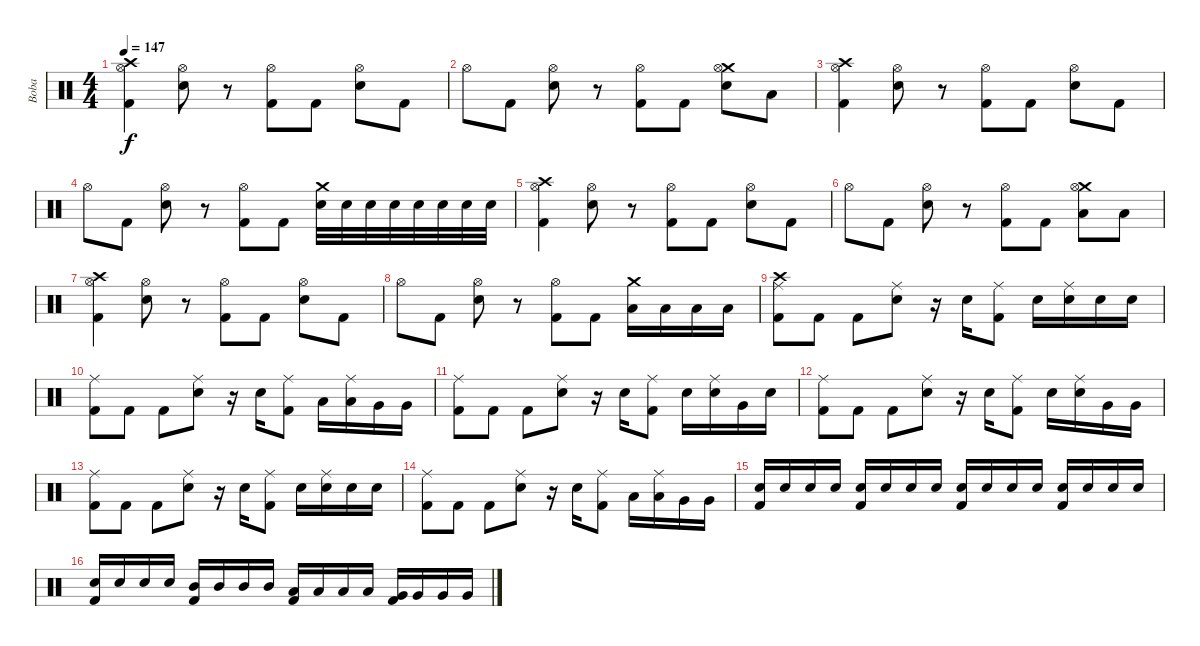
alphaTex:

\track ("Boba" "Boba") {instrument percussion}
\staff {score}
\articulation defaults
\ts (4 4)
\tempo 147
\clef neutral
\ks c
("Crash high (hit)" "Hi-Hat (open)" "Kick (hit) 2").4{dy f} ("Hi-Hat (open)" "Electric Snare (hit)").8 r.8 ("Hi-Hat (open)" "Kick (hit) 2").8 "Kick (hit) 2".8 ("Hi-Hat (open)" "Electric Snare (hit)").8 "Kick (hit) 2".8 |
"Hi-Hat (open)".8 "Kick (hit) 2".8 ("Hi-Hat (open)" "Electric Snare (hit)").8 r.8 ("Hi-Hat (open)" "Kick (hit) 2").8 "Kick (hit) 2".8 ("Crash medium (hit)" "Hi-Hat (open)" "Electric Snare (hit)").8 "Low Floor Tom (hit)".8 |
("Crash high (hit)" "Hi-Hat (open)" "Kick (hit) 2").4 ("Hi-Hat (open)" "Electric Snare (hit)").8 r.8 ("Hi-Hat (open)" "Kick (hit) 2").8 "Kick (hit) 2".8 ("Hi-Hat (open)" "Electric Snare (hit)").8 "Kick (hit) 2".8 |
"Hi-Hat (open)".8 "Kick (hit) 2".8 ("Hi-Hat (open)" "Electric Snare (hit)").8 r.8 ("Hi-Hat (open)" "Kick (hit) 2").8 "Kick (hit) 2".8 ("Crash medium (hit)" "Electric Snare (hit)").32 "Electric Snare (hit)".32 "Electric Snare (hit)".32 "Electric Snare (hit)".32 "Electric Snare (hit)".32 "Electric Snare (hit)".32 "Electric Snare (hit)".32 "Electric Snare (hit)".32 |
("Crash high (hit)" "Hi-Hat (open)" "Kick (hit) 2").4 ("Hi-Hat (open)" "Electric Snare (hit)").8 r.8 ("Hi-Hat (open)" "Kick (hit) 2").8 "Kick (hit) 2".8 ("Hi-Hat (open)" "Electric Snare (hit)").8 "Kick (hit) 2".8 |
"Hi-Hat (open)".8 "Kick (hit) 2".8 ("Hi-Hat (open)" "Electric Snare (hit)").8 r.8 ("Hi-Hat (open)" "Kick (hit) 2").8 "Kick (hit) 2".8 ("Crash medium (hit)" "Hi-Hat (open)" "Low Tom (hit)").8 "Low Tom (hit)".8 |
("Crash high (hit)" "Hi-Hat (open)" "Kick (hit) 2").4 ("Hi-Hat (open)" "Electric Snare (hit)").8 r.8 ("Hi-Hat (open)" "Kick (hit) 2").8 "Kick (hit) 2".8 ("Hi-Hat (open)" "Electric Snare (hit)").8 "Kick (hit) 2".8 |
"Hi-Hat (open)".8 "Kick (hit) 2".8 ("Hi-Hat (open)" "Electric Snare (hit)").8 r.8 ("Hi-Hat (open)" "Kick (hit) 2").8 "Kick (hit) 2".8 ("Crash medium (hit)" "Low Floor Tom (hit)").16 "Low Floor Tom (hit)".16 "Low Floor Tom (hit)".16 "Low Floor Tom (hit)".16 |
("Ride (middle)" "Crash high (hit)" "Kick (hit) 2").8 "Kick (hit) 2".8 "Kick (hit) 2".8 ("Ride (middle)" "Electric Snare (hit)").8 r.16 "Electric Snare (hit)".16 ("Ride (middle)" "Kick (hit) 2").8 "Electric Snare (hit)".16 ("Ride (middle)" "Electric Snare (hit)").16 "Electric Snare (hit)".16 "Electric Snare (hit)".16 |
("Ride (middle)" "Kick (hit) 2").8 "Kick (hit) 2".8 "Kick (hit) 2".8 ("Ride (middle)" "Electric Snare (hit)").8 r.16 "Electric Snare (hit)".16 ("Ride (middle)" "Kick (hit) 2").8 "Low Tom (hit)".16 ("Ride (middle)" "Low Tom (hit)").16 "Very Low Tom (hit)".16 "Very Low Tom (hit)".16 |
("Ride (middle)" "Kick (hit) 2").8 "Kick (hit) 2".8 "Kick (hit) 2".8 ("Ride (middle)" "Electric Snare (hit)").8 r.16 "Electric Snare (hit)".16 ("Ride (middle)" "Kick (hit) 2").8 "Electric Snare (hit)".16 ("Ride (middle)" "Electric Snare (hit)").16 "Very Low Tom (hit)".16 "Electric Snare (hit)".16 |
("Ride (middle)" "Kick (hit) 2").8 "Kick (hit) 2".8 "Kick (hit) 2".8 ("Ride (middle)" "Electric Snare (hit)").8 r.16 "Electric Snare (hit)".16 ("Ride (middle)" "Kick (hit) 2").8 "Electric Snare (hit)".16 ("Ride (middle)" "Electric Snare (hit)").16 "Very Low Tom (hit)".16 "Very Low Tom (hit)".16 |
("Ride (middle)" "Kick (hit) 2").8 "Kick (hit) 2".8 "Kick (hit) 2".8 ("Ride (middle)" "Electric Snare (hit)").8 r.16 "Electric Snare (hit)".16 ("Ride (middle)" "Kick (hit) 2").8 "Electric Snare (hit)".16 ("Ride (middle)" "Electric Snare (hit)").16 "Electric Snare (hit)".16 "Electric Snare (hit)".16 |
("Ride (middle)" "Kick (hit) 2").8 "Kick (hit) 2".8 "Kick (hit) 2".8 ("Ride (middle)" "Electric Snare (hit)").8 r.16 "Electric Snare (hit)".16 ("Ride (middle)" "Kick (hit) 2").8 "Low Tom (hit)".16 ("Ride (middle)" "Low Tom (hit)").16 "Very Low Tom (hit)".16 "Very Low Tom (hit)".16 |
("Electric Snare (hit)" "Kick (hit) 2").16 "Electric Snare (hit)".16 "Electric Snare (hit)".16 "Electric Snare (hit)".16 ("Electric Snare (hit)" "Kick (hit) 2").16 "Electric Snare (hit)".16 "Electric Snare (hit)".16 "Electric Snare (hit)".16 ("Electric Snare (hit)" "Kick (hit) 2").16 "Electric Snare (hit)".16 "Electric Snare (hit)".16 "Electric Snare (hit)".16 ("Electric Snare (hit)" "Kick (hit) 2").16 "Electric Snare (hit)".16 "Electric Snare (hit)".16 "Electric Snare (hit)".16 |
("Electric Snare (hit)" "Kick (hit) 2").16 "Electric Snare (hit)".16 "Electric Snare (hit)".16 "Electric Snare (hit)".16 ("Mid Tom (hit)" "Kick (hit) 2").16 "Mid Tom (hit)".16 "Mid Tom (hit)".16 "Mid Tom (hit)".16 ("Low Tom (hit)" "Kick (hit) 2").16 "Low Tom (hit)".16 "Low Tom (hit)".16 "Low Tom (hit)".16 ("Very Low Tom (hit)" "Kick (hit) 2").16 "Very Low Tom (hit)".16 "Very Low Tom (hit)".16 "Very Low Tom (hit)".16
